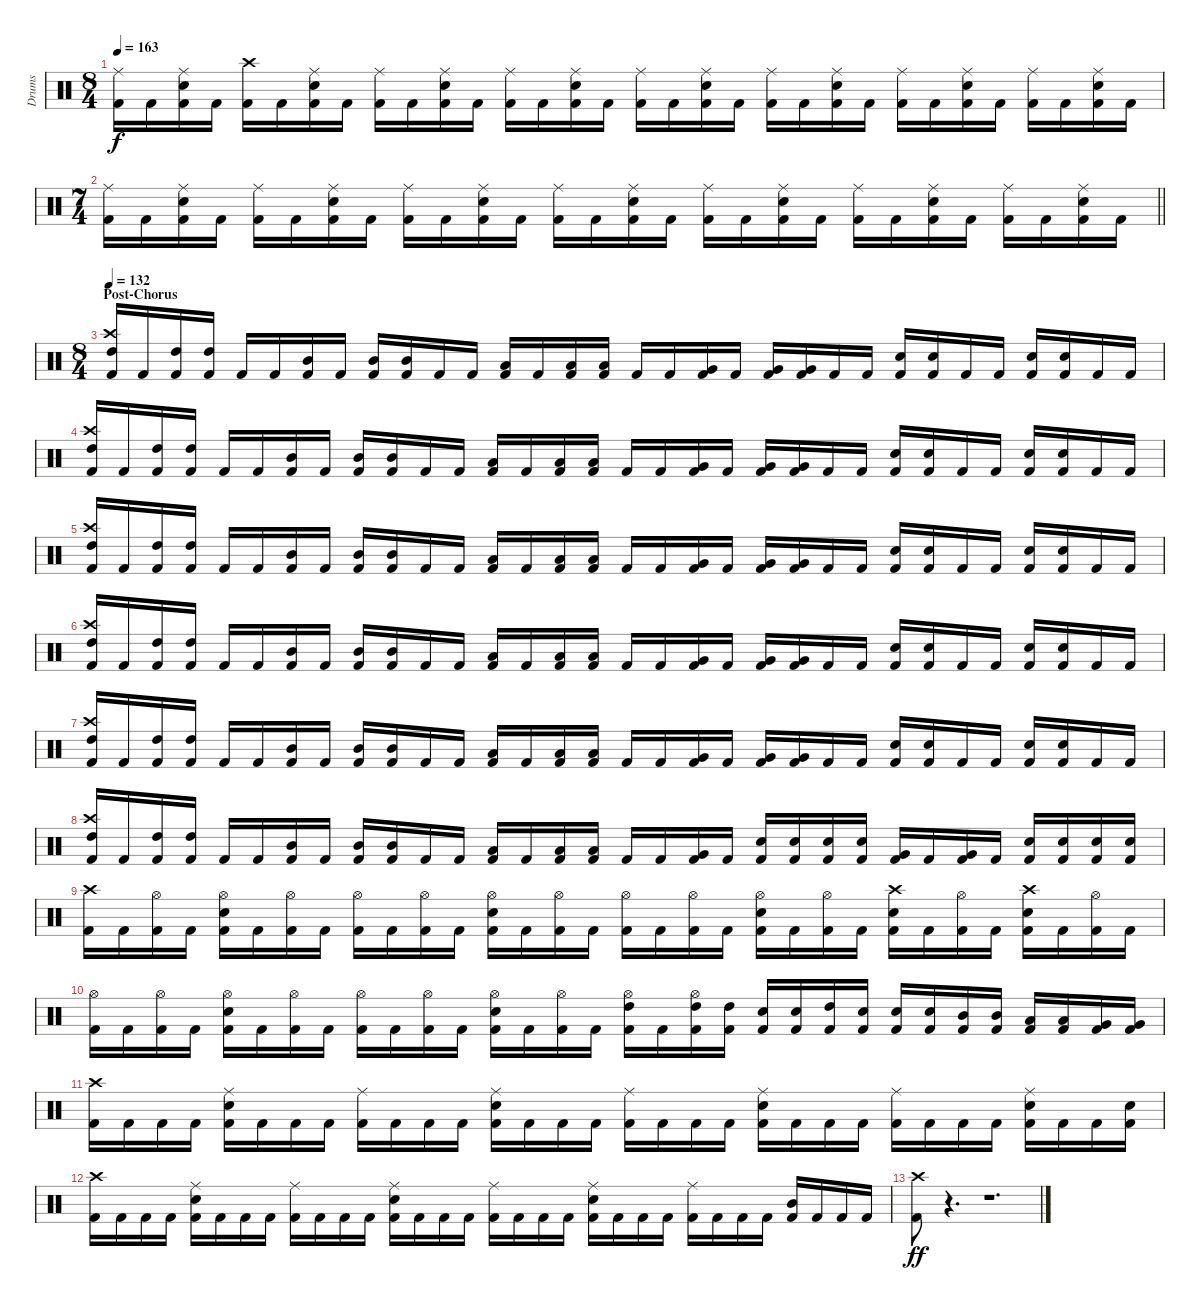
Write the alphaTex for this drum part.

\track ("Drums" "Drums") {instrument percussion}
\staff {score}
\articulation defaults
\ts (8 4)
\tempo 163
\clef neutral
\ks c
("Ride (middle)" "Kick (hit) 2").16{dy f} "Kick (hit) 2".16 ("Ride (middle)" "Snare (hit) 2" "Kick (hit) 2").16 "Kick (hit) 2".16 ("Crash high (hit)" "Kick (hit) 2").16 "Kick (hit) 2".16 ("Ride (middle)" "Snare (hit) 2" "Kick (hit) 2").16 "Kick (hit) 2".16 ("Ride (middle)" "Kick (hit) 2").16 "Kick (hit) 2".16 ("Ride (middle)" "Snare (hit) 2" "Kick (hit) 2").16 "Kick (hit) 2".16 ("Ride (middle)" "Kick (hit) 2").16 "Kick (hit) 2".16 ("Ride (middle)" "Snare (hit) 2" "Kick (hit) 2").16 "Kick (hit) 2".16 ("Ride (middle)" "Kick (hit) 2").16 "Kick (hit) 2".16 ("Ride (middle)" "Snare (hit) 2" "Kick (hit) 2").16 "Kick (hit) 2".16 ("Ride (middle)" "Kick (hit) 2").16 "Kick (hit) 2".16 ("Ride (middle)" "Snare (hit) 2" "Kick (hit) 2").16 "Kick (hit) 2".16 ("Ride (middle)" "Kick (hit) 2").16 "Kick (hit) 2".16 ("Ride (middle)" "Snare (hit) 2" "Kick (hit) 2").16 "Kick (hit) 2".16 ("Ride (middle)" "Kick (hit) 2").16 "Kick (hit) 2".16 ("Ride (middle)" "Snare (hit) 2" "Kick (hit) 2").16 "Kick (hit) 2".16 |
\ts (7 4)
\barLineRight lightlight
("Ride (middle)" "Kick (hit) 2").16 "Kick (hit) 2".16 ("Ride (middle)" "Snare (hit) 2" "Kick (hit) 2").16 "Kick (hit) 2".16 ("Ride (middle)" "Kick (hit) 2").16 "Kick (hit) 2".16 ("Ride (middle)" "Snare (hit) 2" "Kick (hit) 2").16 "Kick (hit) 2".16 ("Ride (middle)" "Kick (hit) 2").16 "Kick (hit) 2".16 ("Ride (middle)" "Snare (hit) 2" "Kick (hit) 2").16 "Kick (hit) 2".16 ("Ride (middle)" "Kick (hit) 2").16 "Kick (hit) 2".16 ("Ride (middle)" "Snare (hit) 2" "Kick (hit) 2").16 "Kick (hit) 2".16 ("Ride (middle)" "Kick (hit) 2").16 "Kick (hit) 2".16 ("Ride (middle)" "Snare (hit) 2" "Kick (hit) 2").16 "Kick (hit) 2".16 ("Ride (middle)" "Kick (hit) 2").16 "Kick (hit) 2".16 ("Ride (middle)" "Snare (hit) 2" "Kick (hit) 2").16 "Kick (hit) 2".16 ("Ride (middle)" "Kick (hit) 2").16 "Kick (hit) 2".16 ("Ride (middle)" "Snare (hit) 2" "Kick (hit) 2").16 "Kick (hit) 2".16 |
\ts (8 4)
\section ("" "Post-Chorus")
\tempo 132
("Crash high (hit)" "High Tom (hit)" "Kick (hit) 2").16 "Kick (hit) 2".16 ("High Tom (hit)" "Kick (hit) 2").16 ("High Tom (hit)" "Kick (hit) 2").16 "Kick (hit) 2".16 "Kick (hit) 2".16 ("Mid Tom (hit)" "Kick (hit) 2").16 "Kick (hit) 2".16 ("Mid Tom (hit)" "Kick (hit) 2").16 ("Mid Tom (hit)" "Kick (hit) 2").16 "Kick (hit) 2".16 "Kick (hit) 2".16 ("Low Tom (hit)" "Kick (hit) 2").16 "Kick (hit) 2".16 ("Low Tom (hit)" "Kick (hit) 2").16 ("Low Tom (hit)" "Kick (hit) 2").16 "Kick (hit) 2".16 "Kick (hit) 2".16 ("Very Low Tom (hit)" "Kick (hit) 2").16 "Kick (hit) 2".16 ("Very Low Tom (hit)" "Kick (hit) 2").16 ("Very Low Tom (hit)" "Kick (hit) 2").16 "Kick (hit) 2".16 "Kick (hit) 2".16 ("Snare (hit) 2" "Kick (hit) 2").16 ("Snare (hit) 2" "Kick (hit) 2").16 "Kick (hit) 2".16 "Kick (hit) 2".16 ("Snare (hit) 2" "Kick (hit) 2").16 ("Snare (hit) 2" "Kick (hit) 2").16 "Kick (hit) 2".16 "Kick (hit) 2".16 |
("Crash high (hit)" "High Tom (hit)" "Kick (hit) 2").16 "Kick (hit) 2".16 ("High Tom (hit)" "Kick (hit) 2").16 ("High Tom (hit)" "Kick (hit) 2").16 "Kick (hit) 2".16 "Kick (hit) 2".16 ("Mid Tom (hit)" "Kick (hit) 2").16 "Kick (hit) 2".16 ("Mid Tom (hit)" "Kick (hit) 2").16 ("Mid Tom (hit)" "Kick (hit) 2").16 "Kick (hit) 2".16 "Kick (hit) 2".16 ("Low Tom (hit)" "Kick (hit) 2").16 "Kick (hit) 2".16 ("Low Tom (hit)" "Kick (hit) 2").16 ("Low Tom (hit)" "Kick (hit) 2").16 "Kick (hit) 2".16 "Kick (hit) 2".16 ("Very Low Tom (hit)" "Kick (hit) 2").16 "Kick (hit) 2".16 ("Very Low Tom (hit)" "Kick (hit) 2").16 ("Very Low Tom (hit)" "Kick (hit) 2").16 "Kick (hit) 2".16 "Kick (hit) 2".16 ("Snare (hit) 2" "Kick (hit) 2").16 ("Snare (hit) 2" "Kick (hit) 2").16 "Kick (hit) 2".16 "Kick (hit) 2".16 ("Snare (hit) 2" "Kick (hit) 2").16 ("Snare (hit) 2" "Kick (hit) 2").16 "Kick (hit) 2".16 "Kick (hit) 2".16 |
("Crash high (hit)" "High Tom (hit)" "Kick (hit) 2").16 "Kick (hit) 2".16 ("High Tom (hit)" "Kick (hit) 2").16 ("High Tom (hit)" "Kick (hit) 2").16 "Kick (hit) 2".16 "Kick (hit) 2".16 ("Mid Tom (hit)" "Kick (hit) 2").16 "Kick (hit) 2".16 ("Mid Tom (hit)" "Kick (hit) 2").16 ("Mid Tom (hit)" "Kick (hit) 2").16 "Kick (hit) 2".16 "Kick (hit) 2".16 ("Low Tom (hit)" "Kick (hit) 2").16 "Kick (hit) 2".16 ("Low Tom (hit)" "Kick (hit) 2").16 ("Low Tom (hit)" "Kick (hit) 2").16 "Kick (hit) 2".16 "Kick (hit) 2".16 ("Very Low Tom (hit)" "Kick (hit) 2").16 "Kick (hit) 2".16 ("Very Low Tom (hit)" "Kick (hit) 2").16 ("Very Low Tom (hit)" "Kick (hit) 2").16 "Kick (hit) 2".16 "Kick (hit) 2".16 ("Snare (hit) 2" "Kick (hit) 2").16 ("Snare (hit) 2" "Kick (hit) 2").16 "Kick (hit) 2".16 "Kick (hit) 2".16 ("Snare (hit) 2" "Kick (hit) 2").16 ("Snare (hit) 2" "Kick (hit) 2").16 "Kick (hit) 2".16 "Kick (hit) 2".16 |
("Crash high (hit)" "High Tom (hit)" "Kick (hit) 2").16 "Kick (hit) 2".16 ("High Tom (hit)" "Kick (hit) 2").16 ("High Tom (hit)" "Kick (hit) 2").16 "Kick (hit) 2".16 "Kick (hit) 2".16 ("Mid Tom (hit)" "Kick (hit) 2").16 "Kick (hit) 2".16 ("Mid Tom (hit)" "Kick (hit) 2").16 ("Mid Tom (hit)" "Kick (hit) 2").16 "Kick (hit) 2".16 "Kick (hit) 2".16 ("Low Tom (hit)" "Kick (hit) 2").16 "Kick (hit) 2".16 ("Low Tom (hit)" "Kick (hit) 2").16 ("Low Tom (hit)" "Kick (hit) 2").16 "Kick (hit) 2".16 "Kick (hit) 2".16 ("Very Low Tom (hit)" "Kick (hit) 2").16 "Kick (hit) 2".16 ("Very Low Tom (hit)" "Kick (hit) 2").16 ("Very Low Tom (hit)" "Kick (hit) 2").16 "Kick (hit) 2".16 "Kick (hit) 2".16 ("Snare (hit) 2" "Kick (hit) 2").16 ("Snare (hit) 2" "Kick (hit) 2").16 "Kick (hit) 2".16 "Kick (hit) 2".16 ("Snare (hit) 2" "Kick (hit) 2").16 ("Snare (hit) 2" "Kick (hit) 2").16 "Kick (hit) 2".16 "Kick (hit) 2".16 |
("Crash high (hit)" "High Tom (hit)" "Kick (hit) 2").16 "Kick (hit) 2".16 ("High Tom (hit)" "Kick (hit) 2").16 ("High Tom (hit)" "Kick (hit) 2").16 "Kick (hit) 2".16 "Kick (hit) 2".16 ("Mid Tom (hit)" "Kick (hit) 2").16 "Kick (hit) 2".16 ("Mid Tom (hit)" "Kick (hit) 2").16 ("Mid Tom (hit)" "Kick (hit) 2").16 "Kick (hit) 2".16 "Kick (hit) 2".16 ("Low Tom (hit)" "Kick (hit) 2").16 "Kick (hit) 2".16 ("Low Tom (hit)" "Kick (hit) 2").16 ("Low Tom (hit)" "Kick (hit) 2").16 "Kick (hit) 2".16 "Kick (hit) 2".16 ("Very Low Tom (hit)" "Kick (hit) 2").16 "Kick (hit) 2".16 ("Very Low Tom (hit)" "Kick (hit) 2").16 ("Very Low Tom (hit)" "Kick (hit) 2").16 "Kick (hit) 2".16 "Kick (hit) 2".16 ("Snare (hit) 2" "Kick (hit) 2").16 ("Snare (hit) 2" "Kick (hit) 2").16 "Kick (hit) 2".16 "Kick (hit) 2".16 ("Snare (hit) 2" "Kick (hit) 2").16 ("Snare (hit) 2" "Kick (hit) 2").16 "Kick (hit) 2".16 "Kick (hit) 2".16 |
("Crash high (hit)" "High Tom (hit)" "Kick (hit) 2").16 "Kick (hit) 2".16 ("High Tom (hit)" "Kick (hit) 2").16 ("High Tom (hit)" "Kick (hit) 2").16 "Kick (hit) 2".16 "Kick (hit) 2".16 ("Mid Tom (hit)" "Kick (hit) 2").16 "Kick (hit) 2".16 ("Mid Tom (hit)" "Kick (hit) 2").16 ("Mid Tom (hit)" "Kick (hit) 2").16 "Kick (hit) 2".16 "Kick (hit) 2".16 ("Low Tom (hit)" "Kick (hit) 2").16 "Kick (hit) 2".16 ("Low Tom (hit)" "Kick (hit) 2").16 ("Low Tom (hit)" "Kick (hit) 2").16 "Kick (hit) 2".16 "Kick (hit) 2".16 ("Very Low Tom (hit)" "Kick (hit) 2").16 "Kick (hit) 2".16 ("Snare (hit) 2" "Kick (hit) 2").16 ("Snare (hit) 2" "Kick (hit) 2").16 ("Snare (hit) 2" "Kick (hit) 2").16 ("Snare (hit) 2" "Kick (hit) 2").16 ("Very Low Tom (hit)" "Kick (hit) 2").16 "Kick (hit) 2".16 ("Very Low Tom (hit)" "Kick (hit) 2").16 "Kick (hit) 2".16 ("Snare (hit) 2" "Kick (hit) 2").16 ("Snare (hit) 2" "Kick (hit) 2").16 ("Snare (hit) 2" "Kick (hit) 2").16 ("Snare (hit) 2" "Kick (hit) 2").16 |
("Crash high (hit)" "Kick (hit) 2").16 "Kick (hit) 2".16 ("Hi-Hat (open)" "Kick (hit) 2").16 "Kick (hit) 2".16 ("Hi-Hat (open)" "Snare (hit) 2" "Kick (hit) 2").16 "Kick (hit) 2".16 ("Hi-Hat (open)" "Kick (hit) 2").16 "Kick (hit) 2".16 ("Hi-Hat (open)" "Kick (hit) 2").16 "Kick (hit) 2".16 ("Hi-Hat (open)" "Kick (hit) 2").16 "Kick (hit) 2".16 ("Hi-Hat (open)" "Snare (hit) 2" "Kick (hit) 2").16 "Kick (hit) 2".16 ("Hi-Hat (open)" "Kick (hit) 2").16 "Kick (hit) 2".16 ("Hi-Hat (open)" "Kick (hit) 2").16 "Kick (hit) 2".16 ("Hi-Hat (open)" "Kick (hit) 2").16 "Kick (hit) 2".16 ("Hi-Hat (open)" "Snare (hit) 2" "Kick (hit) 2").16 "Kick (hit) 2".16 ("Hi-Hat (open)" "Kick (hit) 2").16 "Kick (hit) 2".16 ("Crash high (hit)" "Snare (hit) 2" "Kick (hit) 2").16 "Kick (hit) 2".16 ("Hi-Hat (open)" "Kick (hit) 2").16 "Kick (hit) 2".16 ("Crash high (hit)" "Snare (hit) 2" "Kick (hit) 2").16 "Kick (hit) 2".16 ("Hi-Hat (open)" "Kick (hit) 2").16 "Kick (hit) 2".16 |
("Hi-Hat (open)" "Kick (hit) 2").16 "Kick (hit) 2".16 ("Hi-Hat (open)" "Kick (hit) 2").16 "Kick (hit) 2".16 ("Hi-Hat (open)" "Snare (hit) 2" "Kick (hit) 2").16 "Kick (hit) 2".16 ("Hi-Hat (open)" "Kick (hit) 2").16 "Kick (hit) 2".16 ("Hi-Hat (open)" "Kick (hit) 2").16 "Kick (hit) 2".16 ("Hi-Hat (open)" "Kick (hit) 2").16 "Kick (hit) 2".16 ("Hi-Hat (open)" "Snare (hit) 2" "Kick (hit) 2").16 "Kick (hit) 2".16 ("Hi-Hat (open)" "Kick (hit) 2").16 "Kick (hit) 2".16 ("Hi-Hat (open)" "High Tom (hit)" "Kick (hit) 2").16 "Kick (hit) 2".16 ("Hi-Hat (open)" "High Tom (hit)" "Kick (hit) 2").16 ("High Tom (hit)" "Kick (hit) 2").16 ("Snare (hit) 2" "Kick (hit) 2").16 ("Snare (hit) 2" "Kick (hit) 2").16 ("High Tom (hit)" "Kick (hit) 2").16 ("Snare (hit) 2" "Kick (hit) 2").16 ("Snare (hit) 2" "Kick (hit) 2").16 ("Snare (hit) 2" "Kick (hit) 2").16 ("Mid Tom (hit)" "Kick (hit) 2").16 ("Mid Tom (hit)" "Kick (hit) 2").16 ("Low Tom (hit)" "Kick (hit) 2").16 ("Low Tom (hit)" "Kick (hit) 2").16 ("Very Low Tom (hit)" "Kick (hit) 2").16 ("Very Low Tom (hit)" "Kick (hit) 2").16 |
("Crash high (hit)" "Kick (hit) 2").16 "Kick (hit) 2".16 "Kick (hit) 2".16 "Kick (hit) 2".16 ("Ride (middle)" "Snare (hit) 2" "Kick (hit) 2").16 "Kick (hit) 2".16 "Kick (hit) 2".16 "Kick (hit) 2".16 ("Ride (middle)" "Kick (hit) 2").16 "Kick (hit) 2".16 "Kick (hit) 2".16 "Kick (hit) 2".16 ("Ride (middle)" "Snare (hit) 2" "Kick (hit) 2").16 "Kick (hit) 2".16 "Kick (hit) 2".16 "Kick (hit) 2".16 ("Ride (middle)" "Kick (hit) 2").16 "Kick (hit) 2".16 "Kick (hit) 2".16 "Kick (hit) 2".16 ("Ride (middle)" "Snare (hit) 2" "Kick (hit) 2").16 "Kick (hit) 2".16 "Kick (hit) 2".16 "Kick (hit) 2".16 ("Ride (middle)" "Kick (hit) 2").16 "Kick (hit) 2".16 "Kick (hit) 2".16 "Kick (hit) 2".16 ("Ride (middle)" "Snare (hit) 2" "Kick (hit) 2").16 "Kick (hit) 2".16 "Kick (hit) 2".16 ("Snare (hit) 2" "Kick (hit) 2").16 |
("Crash high (hit)" "Kick (hit) 2").16 "Kick (hit) 2".16 "Kick (hit) 2".16 "Kick (hit) 2".16 ("Ride (middle)" "Snare (hit) 2" "Kick (hit) 2").16 "Kick (hit) 2".16 "Kick (hit) 2".16 "Kick (hit) 2".16 ("Ride (middle)" "Kick (hit) 2").16 "Kick (hit) 2".16 "Kick (hit) 2".16 "Kick (hit) 2".16 ("Ride (middle)" "Snare (hit) 2" "Kick (hit) 2").16 "Kick (hit) 2".16 "Kick (hit) 2".16 "Kick (hit) 2".16 ("Ride (middle)" "Kick (hit) 2").16 "Kick (hit) 2".16 "Kick (hit) 2".16 "Kick (hit) 2".16 ("Ride (middle)" "Snare (hit) 2" "Kick (hit) 2").16 "Kick (hit) 2".16 "Kick (hit) 2".16 "Kick (hit) 2".16 ("Ride (middle)" "Kick (hit) 2").16 "Kick (hit) 2".16 "Kick (hit) 2".16 "Kick (hit) 2".16 ("Mid Tom (hit)" "Kick (hit) 2").16 "Kick (hit) 2".16 "Kick (hit) 2".16 "Kick (hit) 2".16 |
("Crash high (hit)" "Kick (hit) 2").8{dy ff} r.4{d} r.1{d}
